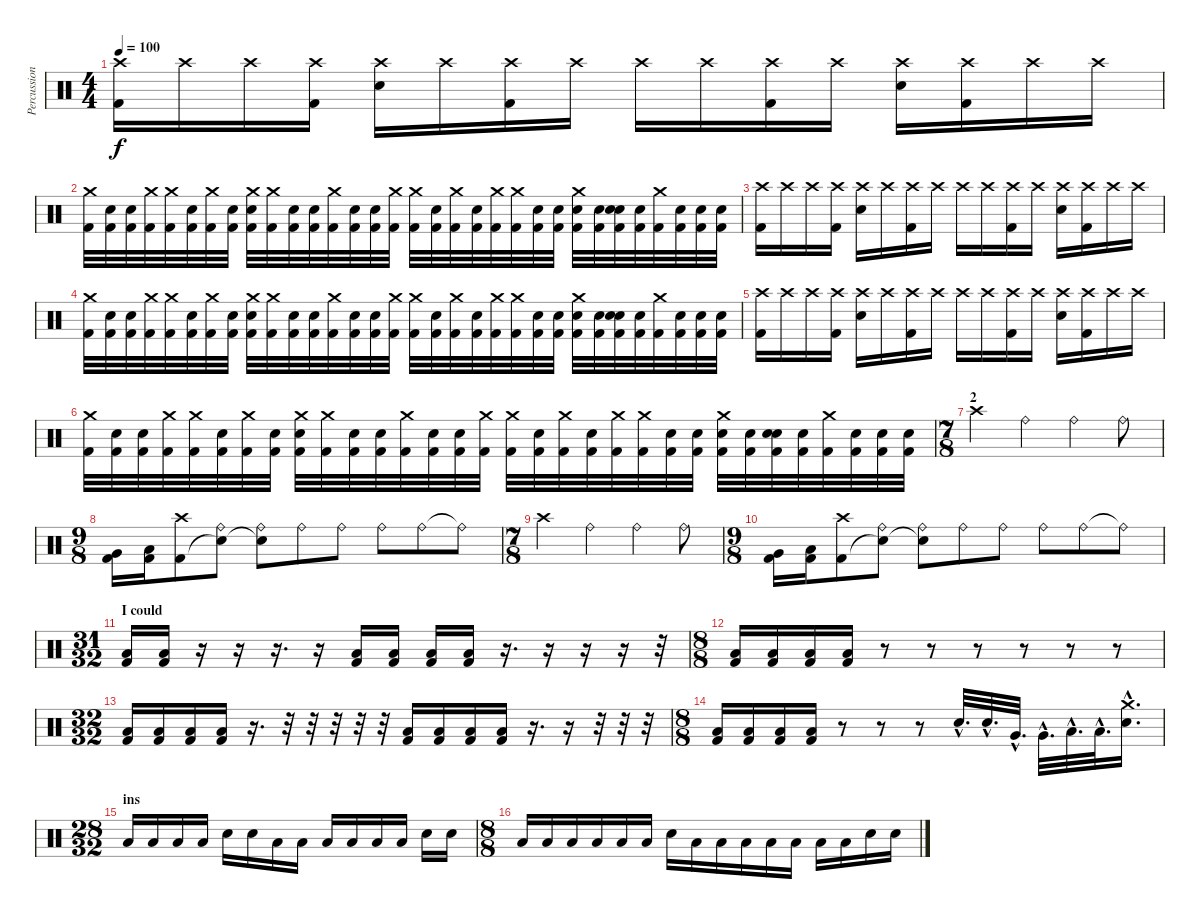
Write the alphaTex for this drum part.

\track ("Percussion" "Percussion") {instrument percussion}
\staff {score}
\articulation defaults
\ts (4 4)
\tempo 100
\clef neutral
\ks c
("Crash high (hit)" "Kick (hit) 2").16{dy f} "Crash high (hit)"{x}.16 "Crash high (hit)".16 ("Crash high (hit)"{x} "Kick (hit) 2").16 ("Crash high (hit)" "Electric Snare (hit)").16 "Crash high (hit)"{x}.16 ("Crash high (hit)" "Kick (hit) 2").16 "Crash high (hit)"{x}.16 "Crash high (hit)".16 "Crash high (hit)"{x}.16 ("Crash high (hit)" "Kick (hit) 2").16 "Crash high (hit)"{x}.16 ("Crash high (hit)" "Electric Snare (hit)").16 ("Crash high (hit)"{x} "Kick (hit) 2").16 "Crash high (hit)".16 "Crash high (hit)"{x}.16 |
("Crash medium (hit)" "Kick (hit) 2").32 ("Snare (hit)"{x} "Kick (hit) 2").32 ("Snare (hit)"{x} "Kick (hit) 2").32 ("Crash medium (hit)"{x} "Kick (hit) 2").32 ("Crash medium (hit)" "Kick (hit) 2").32 ("Snare (hit)"{x} "Kick (hit) 2").32 ("Crash medium (hit)"{x} "Kick (hit) 2").32 ("Snare (hit)"{x} "Kick (hit) 2").32 ("Crash medium (hit)" "Electric Snare (hit)" "Kick (hit) 2").32 ("Crash medium (hit)"{x} "Kick (hit) 2").32 ("Snare (hit)"{x} "Kick (hit) 2").32 ("Snare (hit)"{x} "Kick (hit) 2").32 ("Crash medium (hit)" "Kick (hit) 2").32 ("Snare (hit)"{x} "Kick (hit) 2").32 ("Snare (hit)"{x} "Kick (hit) 2").32 ("Crash medium (hit)"{x} "Kick (hit) 2").32 ("Crash medium (hit)" "Kick (hit) 2").32 ("Snare (hit)"{x} "Kick (hit) 2").32 ("Crash medium (hit)"{x} "Kick (hit) 2").32 ("Snare (hit)"{x} "Kick (hit) 2").32 ("Crash medium (hit)" "Kick (hit) 2").32 ("Crash medium (hit)"{x} "Kick (hit) 2").32 ("Snare (hit)"{x} "Kick (hit) 2").32 ("Snare (hit)"{x} "Kick (hit) 2").32 ("Crash medium (hit)" "Electric Snare (hit)" "Kick (hit) 2").32 ("Snare (hit)"{x} "Kick (hit) 2").32 ("Snare (hit)"{x} "Snare (hit)"{x} "Kick (hit) 2").32 ("Snare (hit)"{x} "Kick (hit) 2").32 ("Crash medium (hit)" "Kick (hit) 2").32 ("Snare (hit)"{x} "Kick (hit) 2").32 ("Snare (hit)"{x} "Kick (hit) 2").32 ("Snare (hit)"{x} "Kick (hit) 2").32 |
("Crash high (hit)" "Kick (hit) 2").16 "Crash high (hit)"{x}.16 "Crash high (hit)".16 ("Crash high (hit)"{x} "Kick (hit) 2").16 ("Crash high (hit)" "Electric Snare (hit)").16 "Crash high (hit)"{x}.16 ("Crash high (hit)" "Kick (hit) 2").16 "Crash high (hit)"{x}.16 "Crash high (hit)".16 "Crash high (hit)"{x}.16 ("Crash high (hit)" "Kick (hit) 2").16 "Crash high (hit)"{x}.16 ("Crash high (hit)" "Electric Snare (hit)").16 ("Crash high (hit)"{x} "Kick (hit) 2").16 "Crash high (hit)".16 "Crash high (hit)"{x}.16 |
("Crash medium (hit)" "Kick (hit) 2").32 ("Snare (hit)"{x} "Kick (hit) 2").32 ("Snare (hit)"{x} "Kick (hit) 2").32 ("Crash medium (hit)"{x} "Kick (hit) 2").32 ("Crash medium (hit)" "Kick (hit) 2").32 ("Snare (hit)"{x} "Kick (hit) 2").32 ("Crash medium (hit)"{x} "Kick (hit) 2").32 ("Snare (hit)"{x} "Kick (hit) 2").32 ("Crash medium (hit)" "Electric Snare (hit)" "Kick (hit) 2").32 ("Crash medium (hit)"{x} "Kick (hit) 2").32 ("Snare (hit)"{x} "Kick (hit) 2").32 ("Snare (hit)"{x} "Kick (hit) 2").32 ("Crash medium (hit)" "Kick (hit) 2").32 ("Snare (hit)"{x} "Kick (hit) 2").32 ("Snare (hit)"{x} "Kick (hit) 2").32 ("Crash medium (hit)"{x} "Kick (hit) 2").32 ("Crash medium (hit)" "Kick (hit) 2").32 ("Snare (hit)"{x} "Kick (hit) 2").32 ("Crash medium (hit)"{x} "Kick (hit) 2").32 ("Snare (hit)"{x} "Kick (hit) 2").32 ("Crash medium (hit)" "Kick (hit) 2").32 ("Crash medium (hit)"{x} "Kick (hit) 2").32 ("Snare (hit)"{x} "Kick (hit) 2").32 ("Snare (hit)"{x} "Kick (hit) 2").32 ("Crash medium (hit)" "Electric Snare (hit)" "Kick (hit) 2").32 ("Snare (hit)"{x} "Kick (hit) 2").32 ("Snare (hit)"{x} "Snare (hit)"{x} "Kick (hit) 2").32 ("Snare (hit)"{x} "Kick (hit) 2").32 ("Crash medium (hit)" "Kick (hit) 2").32 ("Snare (hit)"{x} "Kick (hit) 2").32 ("Snare (hit)"{x} "Kick (hit) 2").32 ("Snare (hit)"{x} "Kick (hit) 2").32 |
("Crash high (hit)" "Kick (hit) 2").16 "Crash high (hit)"{x}.16 "Crash high (hit)".16 ("Crash high (hit)"{x} "Kick (hit) 2").16 ("Crash high (hit)" "Electric Snare (hit)").16 "Crash high (hit)"{x}.16 ("Crash high (hit)" "Kick (hit) 2").16 "Crash high (hit)"{x}.16 "Crash high (hit)".16 "Crash high (hit)"{x}.16 ("Crash high (hit)" "Kick (hit) 2").16 "Crash high (hit)"{x}.16 ("Crash high (hit)" "Electric Snare (hit)").16 ("Crash high (hit)"{x} "Kick (hit) 2").16 "Crash high (hit)".16 "Crash high (hit)"{x}.16 |
("Crash medium (hit)" "Kick (hit) 2").32 ("Snare (hit)"{x} "Kick (hit) 2").32 ("Snare (hit)"{x} "Kick (hit) 2").32 ("Crash medium (hit)"{x} "Kick (hit) 2").32 ("Crash medium (hit)" "Kick (hit) 2").32 ("Snare (hit)"{x} "Kick (hit) 2").32 ("Crash medium (hit)"{x} "Kick (hit) 2").32 ("Snare (hit)"{x} "Kick (hit) 2").32 ("Crash medium (hit)" "Electric Snare (hit)" "Kick (hit) 2").32 ("Crash medium (hit)"{x} "Kick (hit) 2").32 ("Snare (hit)"{x} "Kick (hit) 2").32 ("Snare (hit)"{x} "Kick (hit) 2").32 ("Crash medium (hit)" "Kick (hit) 2").32 ("Snare (hit)"{x} "Kick (hit) 2").32 ("Snare (hit)"{x} "Kick (hit) 2").32 ("Crash medium (hit)"{x} "Kick (hit) 2").32 ("Crash medium (hit)" "Kick (hit) 2").32 ("Snare (hit)"{x} "Kick (hit) 2").32 ("Crash medium (hit)"{x} "Kick (hit) 2").32 ("Snare (hit)"{x} "Kick (hit) 2").32 ("Crash medium (hit)" "Kick (hit) 2").32 ("Crash medium (hit)"{x} "Kick (hit) 2").32 ("Snare (hit)"{x} "Kick (hit) 2").32 ("Snare (hit)"{x} "Kick (hit) 2").32 ("Crash medium (hit)" "Electric Snare (hit)" "Kick (hit) 2").32 ("Snare (hit)"{x} "Kick (hit) 2").32 ("Snare (hit)"{x} "Snare (hit)"{x} "Kick (hit) 2").32 ("Snare (hit)"{x} "Kick (hit) 2").32 ("Crash medium (hit)" "Kick (hit) 2").32 ("Snare (hit)"{x} "Kick (hit) 2").32 ("Snare (hit)"{x} "Kick (hit) 2").32 ("Snare (hit)"{x} "Kick (hit) 2").32 |
\ts (7 8)
\section ("" "2")
"Crash high (hit)".4 "Ride (bell)".4 "Ride (bell)".4 "Ride (bell)".8 |
\ts (9 8)
("Very Low Tom (hit)" "Kick (hit) 2").16 ("Low Tom (hit)" "Kick (hit) 2").16 ("Crash high (hit)" "Kick (hit) 2").8 ("Ride (bell)"{x} "Snare (hit)"{t}).8 ("Ride (bell)" "Snare (hit)"{t}).8 "Ride (bell)"{x}.8 "Ride (bell)".8 "Ride (bell)"{x}.8 "Ride (bell)".8 "Ride (bell)"{t}.8 |
\ts (7 8)
"Crash high (hit)".4 "Ride (bell)".4 "Ride (bell)".4 "Ride (bell)".8 |
\ts (9 8)
("Very Low Tom (hit)" "Kick (hit) 2").16 ("Low Tom (hit)" "Kick (hit) 2").16 ("Crash high (hit)" "Kick (hit) 2").8 ("Ride (bell)"{x} "Snare (hit)"{t}).8 ("Ride (bell)" "Snare (hit)"{t}).8 "Ride (bell)"{x}.8 "Ride (bell)".8 "Ride (bell)"{x}.8 "Ride (bell)".8 "Ride (bell)"{t}.8 |
\ts (31 32)
\section ("" "I could")
("Low Tom (hit)" "Kick (hit) 2").16 ("Low Tom (hit)" "Kick (hit) 2").16 r.16 r.16 r.16{d} r.16 ("Low Tom (hit)" "Kick (hit) 2").16 ("Kick (hit) 2" "Low Tom (hit)").16 ("Low Tom (hit)" "Kick (hit) 2").16 ("Low Tom (hit)" "Kick (hit) 2").16 r.16{d} r.16 r.16 r.16 r.32 |
\ts (8 8)
("Low Tom (hit)" "Kick (hit) 2").16 ("Low Tom (hit)" "Kick (hit) 2").16 ("Low Tom (hit)" "Kick (hit) 2").16 ("Low Tom (hit)" "Kick (hit) 2").16 r.8 r.8 r.8 r.8 r.8 r.8 |
\ts (32 32)
("Low Tom (hit)" "Kick (hit) 2").16 ("Low Tom (hit)" "Kick (hit) 2").16 ("Low Tom (hit)" "Kick (hit) 2").16 ("Low Tom (hit)" "Kick (hit) 2").16 r.16{d} r.32 r.32 r.32 r.32 r.32 ("Low Tom (hit)" "Kick (hit) 2").16 ("Kick (hit) 2" "Low Tom (hit)").16 ("Low Tom (hit)" "Kick (hit) 2").16 ("Low Tom (hit)" "Kick (hit) 2").16 r.16{d} r.16 r.32 r.32 r.32 |
\ts (8 8)
("Low Tom (hit)" "Kick (hit) 2").16 ("Low Tom (hit)" "Kick (hit) 2").16 ("Low Tom (hit)" "Kick (hit) 2").16 ("Low Tom (hit)" "Kick (hit) 2").16 r.8 r.8 r.8 "Electric Snare (hit)"{hac}.32{d} "Electric Snare (hit)"{hac}.32{d} "Very Low Tom (hit)"{hac}.32{d} "Very Low Tom (hit)"{hac}.32{d} "Low Tom (hit)"{hac}.32{d} "Low Tom (hit)"{hac}.32{d} ("Crash medium (hit)"{hac} "Electric Snare (hit)"{hac}).16{d} |
\ts (28 32)
\section ("" "ins")
"Low Tom (hit)".16 "Low Tom (hit)".16 "Low Tom (hit)".16 "Low Tom (hit)".16 "Electric Snare (hit)".16 "Snare (hit)".16 "Low Tom (hit)".16 "Low Tom (hit)".16 "Low Tom (hit)".16 "Low Tom (hit)".16 "Low Tom (hit)".16 "Low Tom (hit)".16 "Electric Snare (hit)".16 "Snare (hit)"{x}.16 |
\ts (8 8)
"Low Tom (hit)".16 "Low Tom (hit)".16 "Low Tom (hit)".16 "Low Tom (hit)".16 "Low Tom (hit)".16 "Low Tom (hit)".16 "Electric Snare (hit)".16 "Low Tom (hit)"{x}.16 "Low Tom (hit)".16 "Low Tom (hit)".16 "Low Tom (hit)".16 "Low Tom (hit)".16 "Low Tom (hit)".16 "Low Tom (hit)".16 "Electric Snare (hit)".16 "Electric Snare (hit)"{x}.16
